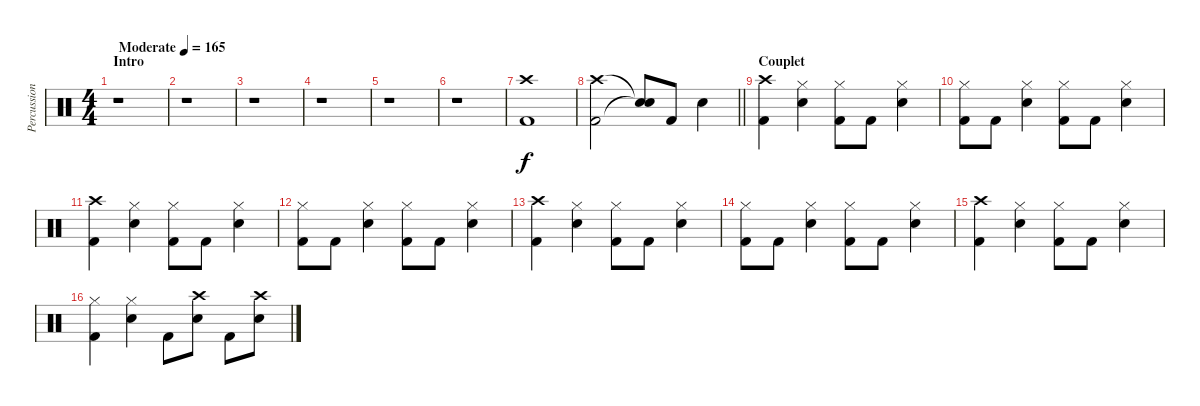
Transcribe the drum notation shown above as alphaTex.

\track ("Percussions" "Percussion") {instrument percussion}
\staff {score}
\articulation defaults
\ts (4 4)
\section ("" "Intro")
\tempo (165 "Moderate")
\clef neutral
\ks c
r.1{dy f} |
r.1 |
r.1 |
r.1 |
r.1 |
r.1 |
("Crash high (hit)" "Kick (hit) 2").1 |
\barLineRight lightlight
("Crash high (hit)" "Kick (hit) 2").2 ("Snare (hit)"{t} "Snare (hit)"{t}).8 "Kick (hit) 2".8 "Electric Snare (hit)".4 |
\section ("" "Couplet")
("Crash high (hit)" "Kick (hit) 2").4 ("Hi-Hat (closed)" "Electric Snare (hit)").4 ("Hi-Hat (closed)" "Kick (hit) 2").8 "Kick (hit) 2".8 ("Hi-Hat (closed)" "Electric Snare (hit)").4 |
("Hi-Hat (closed)" "Kick (hit) 2").8 "Kick (hit) 2".8 ("Hi-Hat (closed)" "Electric Snare (hit)").4 ("Hi-Hat (closed)" "Kick (hit) 2").8 "Kick (hit) 2".8 ("Hi-Hat (closed)" "Electric Snare (hit)").4 |
("Crash high (hit)" "Kick (hit) 2").4 ("Hi-Hat (closed)" "Electric Snare (hit)").4 ("Hi-Hat (closed)" "Kick (hit) 2").8 "Kick (hit) 2".8 ("Hi-Hat (closed)" "Electric Snare (hit)").4 |
("Hi-Hat (closed)" "Kick (hit) 2").8 "Kick (hit) 2".8 ("Hi-Hat (closed)" "Electric Snare (hit)").4 ("Hi-Hat (closed)" "Kick (hit) 2").8 "Kick (hit) 2".8 ("Hi-Hat (closed)" "Electric Snare (hit)").4 |
("Crash high (hit)" "Kick (hit) 2").4 ("Hi-Hat (closed)" "Electric Snare (hit)").4 ("Hi-Hat (closed)" "Kick (hit) 2").8 "Kick (hit) 2".8 ("Hi-Hat (closed)" "Electric Snare (hit)").4 |
("Hi-Hat (closed)" "Kick (hit) 2").8 "Kick (hit) 2".8 ("Hi-Hat (closed)" "Electric Snare (hit)").4 ("Hi-Hat (closed)" "Kick (hit) 2").8 "Kick (hit) 2".8 ("Hi-Hat (closed)" "Electric Snare (hit)").4 |
("Crash high (hit)" "Kick (hit) 2").4 ("Hi-Hat (closed)" "Electric Snare (hit)").4 ("Hi-Hat (closed)" "Kick (hit) 2").8 "Kick (hit) 2".8 ("Hi-Hat (closed)" "Electric Snare (hit)").4 |
("Hi-Hat (closed)" "Kick (hit) 2").4 ("Hi-Hat (closed)" "Electric Snare (hit)").4 "Kick (hit) 2".8 ("Crash high (hit)" "Electric Snare (hit)").8 "Kick (hit) 2".8 ("Crash high (hit)" "Electric Snare (hit)").8
